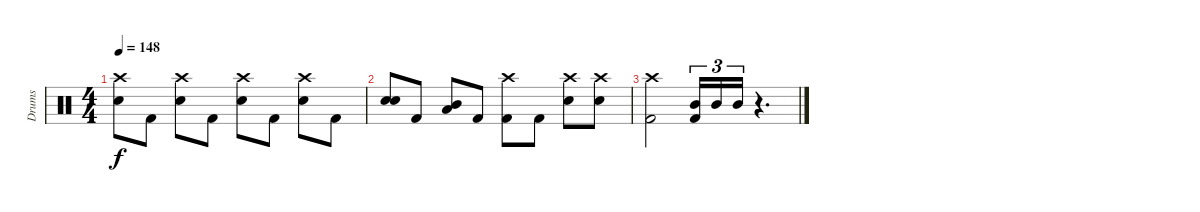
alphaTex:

\track ("Drums" "Drums") {instrument percussion}
\staff {score}
\articulation defaults
\ts (4 4)
\tempo 148
\clef neutral
\ks c
("Crash high (hit)" "Snare (hit) 2").8{dy f} "Kick (hit) 2".8 ("Crash high (hit)" "Snare (hit) 2").8 "Kick (hit) 2".8 ("Crash high (hit)" "Snare (hit) 2").8 "Kick (hit) 2".8 ("Crash high (hit)" "Snare (hit) 2").8 "Kick (hit) 2".8 |
("Electric Snare (hit)" "Snare (hit) 2").8 "Kick (hit) 2".8 ("Low Tom (hit)" "Mid Tom (hit)").8 "Kick (hit) 2".8 ("Crash high (hit)" "Kick (hit) 2").8 "Kick (hit) 2".8 ("Crash high (hit)" "Snare (hit) 2").8 ("Crash high (hit)" "Snare (hit) 2").8 |
("Crash high (hit)" "Kick (hit) 2").2 ("Mid Tom (hit)" "Kick (hit) 2").16{tu (3 2)} "Mid Tom (hit)".16{tu (3 2)} "Mid Tom (hit)".16{tu (3 2)} r.4{d}
